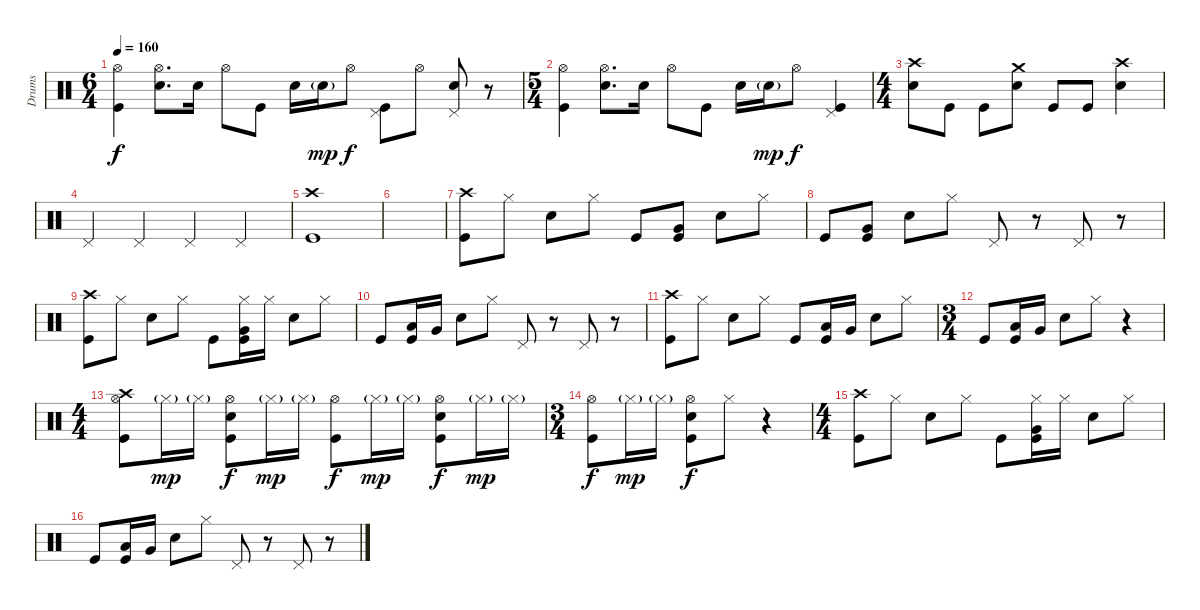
\track ("Drums" "Drums") {instrument percussion}
\staff {score}
\articulation defaults
\ts (6 4)
\tempo 160
\clef neutral
\ks c
("Kick (hit)" "Hi-Hat (open)").4{dy f} ("Snare (hit) 2" "Hi-Hat (open)").8{d} "Snare (hit) 2".16 "Hi-Hat (open)".8 "Kick (hit)".8 "Snare (hit) 2".16 "Snare (hit) 2"{g}.16{dy mp} "Hi-Hat (open)".8{dy f} ("Kick (hit)" "Pedal Hi-Hat (hit)").8 "Hi-Hat (open)".8 ("Snare (hit) 2" "Pedal Hi-Hat (hit)").8 r.8 |
\ts (5 4)
("Kick (hit)" "Hi-Hat (open)").4 ("Snare (hit) 2" "Hi-Hat (open)").8{d} "Snare (hit) 2".16 "Hi-Hat (open)".8 "Kick (hit)".8 "Snare (hit) 2".16 "Snare (hit) 2"{g}.16{dy mp} "Hi-Hat (open)".8{dy f} ("Kick (hit)" "Pedal Hi-Hat (hit)").4 |
\ts (4 4)
("Snare (hit) 2" "Crash high (hit)").8 "Kick (hit)".8 "Kick (hit)".8 ("Snare (hit) 2" "Crash medium (hit)").8 "Kick (hit)".8 "Kick (hit)".8 ("Snare (hit) 2" "Crash high (hit)").4 |
"Pedal Hi-Hat (hit)".4 "Pedal Hi-Hat (hit)".4 "Pedal Hi-Hat (hit)".4 "Pedal Hi-Hat (hit)".4 |
("Kick (hit)" "Crash high (hit)").1 |
|
("Kick (hit)" "Crash high (hit)").8 "Hi-Hat (closed)".8 "Snare (hit) 2".8 "Hi-Hat (closed)".8 "Kick (hit)".8 ("Kick (hit)" "Very Low Tom (hit)").8 "Snare (hit) 2".8 "Hi-Hat (closed)".8 |
"Kick (hit)".8 ("Kick (hit)" "Very Low Tom (hit)").8 "Snare (hit) 2".8 "Hi-Hat (closed)".8 "Pedal Hi-Hat (hit)".8 r.8 "Pedal Hi-Hat (hit)".8 r.8 |
("Kick (hit)" "Crash high (hit)").8 "Hi-Hat (closed)".8 "Snare (hit) 2".8 "Hi-Hat (closed)".8 "Kick (hit)".8 ("Kick (hit)" "Very Low Tom (hit)" "Hi-Hat (closed)").16 "Hi-Hat (closed)".16 "Snare (hit) 2".8 "Hi-Hat (closed)".8 |
"Kick (hit)".8 ("Kick (hit)" "Low Tom (hit)").16 "Very Low Tom (hit)".16 "Snare (hit) 2".8 "Hi-Hat (closed)".8 "Pedal Hi-Hat (hit)".8 r.8 "Pedal Hi-Hat (hit)".8 r.8 |
("Kick (hit)" "Crash high (hit)").8 "Hi-Hat (closed)".8 "Snare (hit) 2".8 "Hi-Hat (closed)".8 "Kick (hit)".8 ("Kick (hit)" "Low Tom (hit)").16 "Very Low Tom (hit)".16 "Snare (hit) 2".8 "Hi-Hat (closed)".8 |
\ts (3 4)
"Kick (hit)".8 ("Kick (hit)" "Low Tom (hit)").16 "Very Low Tom (hit)".16 "Snare (hit) 2".8 "Hi-Hat (closed)".8 r.4 |
\ts (4 4)
("Kick (hit)" "Hi-Hat (open)" "Crash high (hit)").8 "Hi-Hat (closed)"{g}.16{dy mp} "Hi-Hat (closed)"{g}.16 ("Kick (hit)" "Snare (hit) 2" "Hi-Hat (open)").8{dy f} "Hi-Hat (closed)"{g}.16{dy mp} "Hi-Hat (closed)"{g}.16 ("Kick (hit)" "Hi-Hat (open)").8{dy f} "Hi-Hat (closed)"{g}.16{dy mp} "Hi-Hat (closed)"{g}.16 ("Kick (hit)" "Snare (hit) 2" "Hi-Hat (open)").8{dy f} "Hi-Hat (closed)"{g}.16{dy mp} "Hi-Hat (closed)"{g}.16 |
\ts (3 4)
("Kick (hit)" "Hi-Hat (open)").8{dy f} "Hi-Hat (closed)"{g}.16{dy mp} "Hi-Hat (closed)"{g}.16 ("Kick (hit)" "Snare (hit) 2" "Hi-Hat (open)").8{dy f} "Hi-Hat (closed)".8 r.4 |
\ts (4 4)
("Kick (hit)" "Crash high (hit)").8 "Hi-Hat (closed)".8 "Snare (hit) 2".8 "Hi-Hat (closed)".8 "Kick (hit)".8 ("Kick (hit)" "Very Low Tom (hit)" "Hi-Hat (closed)").16 "Hi-Hat (closed)".16 "Snare (hit) 2".8 "Hi-Hat (closed)".8 |
"Kick (hit)".8 ("Kick (hit)" "Low Tom (hit)").16 "Very Low Tom (hit)".16 "Snare (hit) 2".8 "Hi-Hat (closed)".8 "Pedal Hi-Hat (hit)".8 r.8 "Pedal Hi-Hat (hit)".8 r.8
